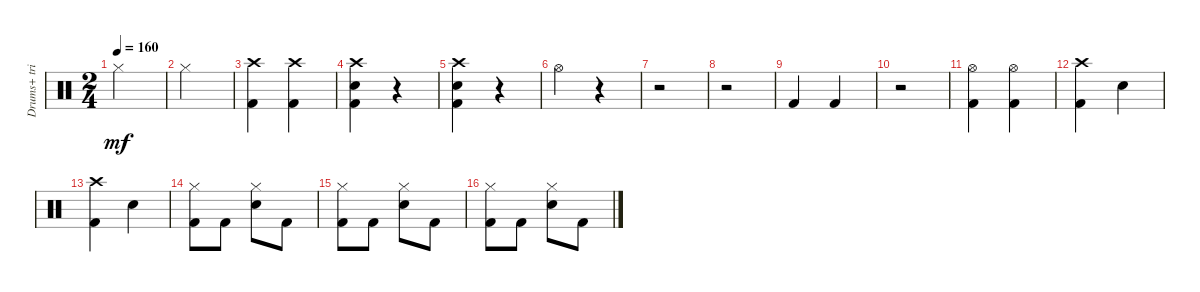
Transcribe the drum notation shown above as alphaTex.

\track ("Drums+ triangle" "Drums+ tri") {instrument percussion}
\staff {score}
\articulation defaults
\ts (2 4)
\tempo 160
\clef neutral
\ks c "Hi-Hat (closed)".2{dy mf}
|
"Hi-Hat (closed)".2 |
("Crash high (hit)" "Kick (hit) 2").4 ("Crash high (hit)" "Kick (hit) 2").4 |
("Crash high (hit)" "Snare (hit) 2" "Kick (hit) 2").4 r.4 |
("Crash high (hit)" "Snare (hit) 2" "Kick (hit) 2").4 r.4 |
"Hi-Hat (open)".4 r.4 |
r.2 |
r.2 |
"Kick (hit) 2".4 "Kick (hit) 2".4 |
r.2 |
("Hi-Hat (open)" "Kick (hit) 2").4 ("Hi-Hat (open)" "Kick (hit) 2").4 |
("Kick (hit) 2" "Crash high (hit)").4 "Snare (hit) 2".4 |
("Kick (hit) 2" "Crash high (hit)").4 "Snare (hit) 2".4 |
("Kick (hit) 2" "Hi-Hat (closed)").8 "Kick (hit) 2".8 ("Snare (hit) 2" "Hi-Hat (closed)").8 "Kick (hit) 2".8 |
("Kick (hit) 2" "Hi-Hat (closed)").8 "Kick (hit) 2".8 ("Snare (hit) 2" "Hi-Hat (closed)").8 "Kick (hit) 2".8 |
("Kick (hit) 2" "Hi-Hat (closed)").8 "Kick (hit) 2".8 ("Snare (hit) 2" "Hi-Hat (closed)").8 "Kick (hit) 2".8
